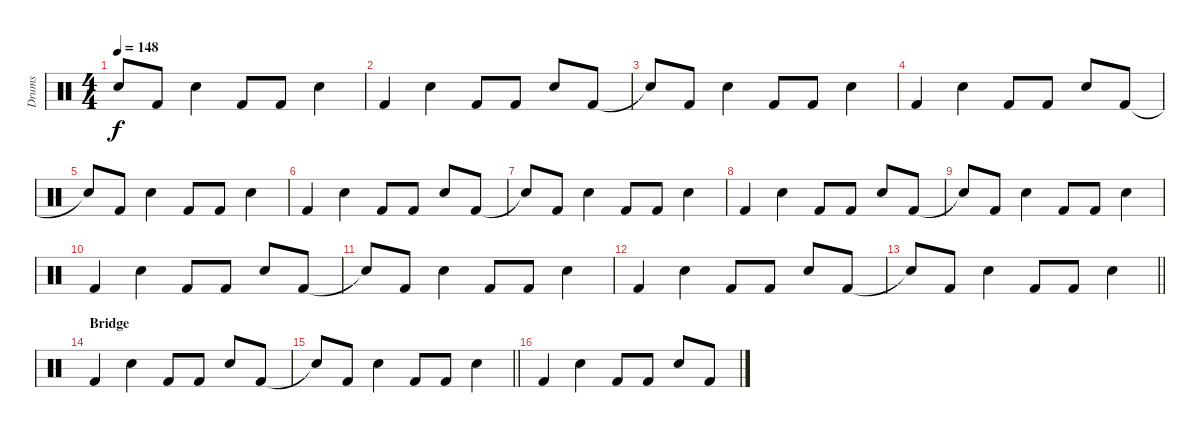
\track ("Drums" "Drums") {instrument percussion}
\staff {score}
\articulation defaults
\ts (4 4)
\tempo 148
\clef neutral
\ks c "Snare (hit)"{t}.8{dy f} "Kick (hit) 2".8 "Electric Snare (hit)".4 "Kick (hit) 2".8 "Kick (hit) 2".8 "Electric Snare (hit)".4
|
"Kick (hit) 2".4 "Electric Snare (hit)".4 "Kick (hit) 2".8 "Kick (hit) 2".8 "Electric Snare (hit)".8 "Kick (hit) 2".8 |
"Snare (hit)"{t}.8 "Kick (hit) 2".8 "Electric Snare (hit)".4 "Kick (hit) 2".8 "Kick (hit) 2".8 "Electric Snare (hit)".4 |
"Kick (hit) 2".4 "Electric Snare (hit)".4 "Kick (hit) 2".8 "Kick (hit) 2".8 "Electric Snare (hit)".8 "Kick (hit) 2".8 |
"Snare (hit)"{t}.8 "Kick (hit) 2".8 "Electric Snare (hit)".4 "Kick (hit) 2".8 "Kick (hit) 2".8 "Electric Snare (hit)".4 |
"Kick (hit) 2".4 "Electric Snare (hit)".4 "Kick (hit) 2".8 "Kick (hit) 2".8 "Electric Snare (hit)".8 "Kick (hit) 2".8 |
"Snare (hit)"{t}.8 "Kick (hit) 2".8 "Electric Snare (hit)".4 "Kick (hit) 2".8 "Kick (hit) 2".8 "Electric Snare (hit)".4 |
"Kick (hit) 2".4 "Electric Snare (hit)".4 "Kick (hit) 2".8 "Kick (hit) 2".8 "Electric Snare (hit)".8 "Kick (hit) 2".8 |
"Snare (hit)"{t}.8 "Kick (hit) 2".8 "Electric Snare (hit)".4 "Kick (hit) 2".8 "Kick (hit) 2".8 "Electric Snare (hit)".4 |
"Kick (hit) 2".4 "Electric Snare (hit)".4 "Kick (hit) 2".8 "Kick (hit) 2".8 "Electric Snare (hit)".8 "Kick (hit) 2".8 |
"Snare (hit)"{t}.8 "Kick (hit) 2".8 "Electric Snare (hit)".4 "Kick (hit) 2".8 "Kick (hit) 2".8 "Electric Snare (hit)".4 |
"Kick (hit) 2".4 "Electric Snare (hit)".4 "Kick (hit) 2".8 "Kick (hit) 2".8 "Electric Snare (hit)".8 "Kick (hit) 2".8 |
\barLineRight lightlight "Snare (hit)"{t}.8 "Kick (hit) 2".8 "Electric Snare (hit)".4 "Kick (hit) 2".8 "Kick (hit) 2".8 "Electric Snare (hit)".4
|
\section ("" "Bridge")
"Kick (hit) 2".4 "Electric Snare (hit)".4 "Kick (hit) 2".8 "Kick (hit) 2".8 "Electric Snare (hit)".8 "Kick (hit) 2".8 |
\barLineRight lightlight "Snare (hit)"{t}.8 "Kick (hit) 2".8 "Electric Snare (hit)".4 "Kick (hit) 2".8 "Kick (hit) 2".8 "Electric Snare (hit)".4
|
"Kick (hit) 2".4 "Electric Snare (hit)".4 "Kick (hit) 2".8 "Kick (hit) 2".8 "Electric Snare (hit)".8 "Kick (hit) 2".8
